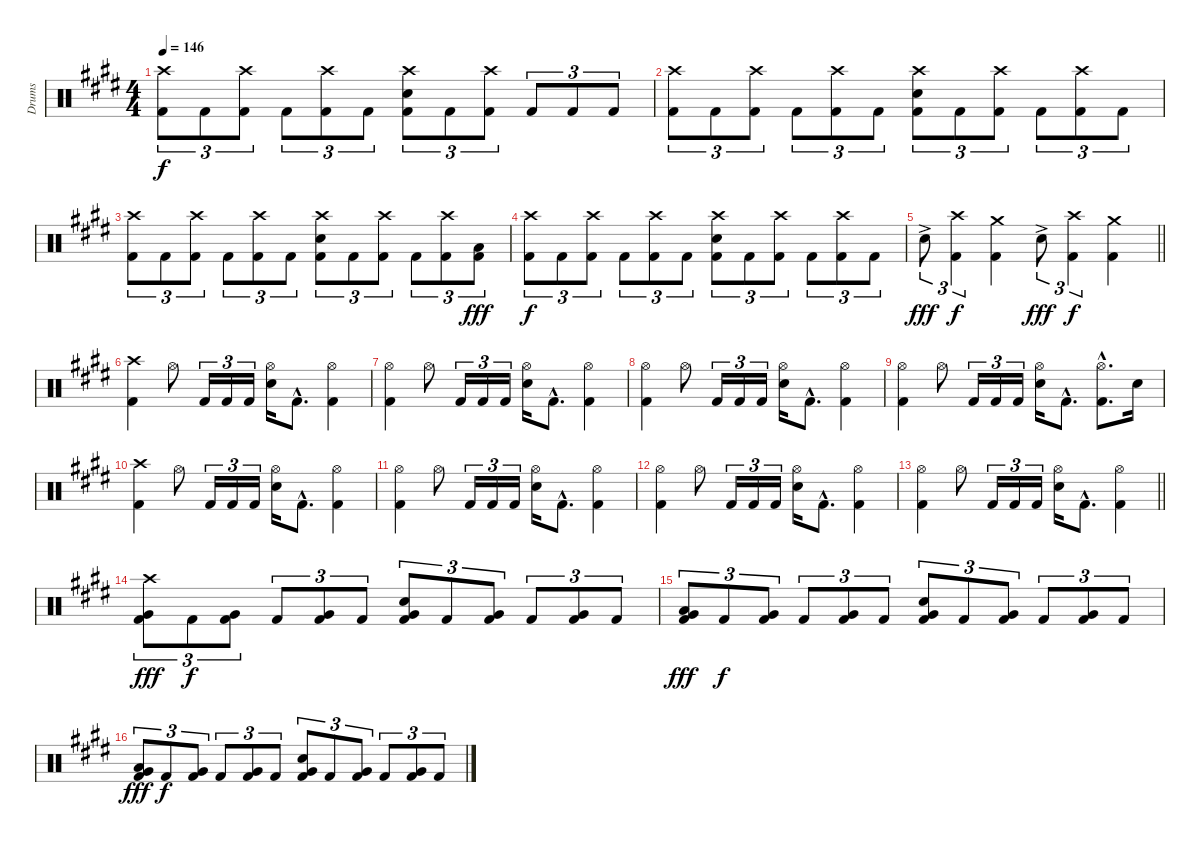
\track ("Drums" "Drums") {instrument percussion}
\staff {score}
\articulation defaults
\ts (4 4)
\tempo 146
\clef neutral
\ks c#minor
("Crash high (hit)" "Kick (hit) 2").8{tu (3 2) dy f} "Kick (hit) 2".8{tu (3 2)} ("Crash high (hit)" "Kick (hit) 2").8{tu (3 2)} "Kick (hit) 2".8{tu (3 2)} ("Crash high (hit)" "Kick (hit) 2").8{tu (3 2)} "Kick (hit) 2".8{tu (3 2)} ("Crash high (hit)" "Snare (hit) 2" "Kick (hit) 2").8{tu (3 2)} "Kick (hit) 2".8{tu (3 2)} ("Crash high (hit)" "Kick (hit) 2").8{tu (3 2)} "Kick (hit) 2".8{tu (3 2)} "Kick (hit) 2".8{tu (3 2)} "Kick (hit) 2".8{tu (3 2)} |
("Crash high (hit)" "Kick (hit) 2").8{tu (3 2)} "Kick (hit) 2".8{tu (3 2)} ("Crash high (hit)" "Kick (hit) 2").8{tu (3 2)} "Kick (hit) 2".8{tu (3 2)} ("Crash high (hit)" "Kick (hit) 2").8{tu (3 2)} "Kick (hit) 2".8{tu (3 2)} ("Crash high (hit)" "Snare (hit) 2" "Kick (hit) 2").8{tu (3 2)} "Kick (hit) 2".8{tu (3 2)} ("Crash high (hit)" "Kick (hit) 2").8{tu (3 2)} "Kick (hit) 2".8{tu (3 2)} ("Crash high (hit)" "Kick (hit) 2").8{tu (3 2)} "Kick (hit) 2".8{tu (3 2)} |
("Crash high (hit)" "Kick (hit) 2").8{tu (3 2)} "Kick (hit) 2".8{tu (3 2)} ("Crash high (hit)" "Kick (hit) 2").8{tu (3 2)} "Kick (hit) 2".8{tu (3 2)} ("Crash high (hit)" "Kick (hit) 2").8{tu (3 2)} "Kick (hit) 2".8{tu (3 2)} ("Crash high (hit)" "Snare (hit) 2" "Kick (hit) 2").8{tu (3 2)} "Kick (hit) 2".8{tu (3 2)} ("Crash high (hit)" "Kick (hit) 2").8{tu (3 2)} "Kick (hit) 2".8{tu (3 2)} ("Crash high (hit)" "Kick (hit) 2").8{tu (3 2)} ("Low Tom (hit)" "Kick (hit) 2").8{tu (3 2) dy fff} |
("Crash high (hit)" "Kick (hit) 2").8{tu (3 2) dy f} "Kick (hit) 2".8{tu (3 2)} ("Crash high (hit)" "Kick (hit) 2").8{tu (3 2)} "Kick (hit) 2".8{tu (3 2)} ("Crash high (hit)" "Kick (hit) 2").8{tu (3 2)} "Kick (hit) 2".8{tu (3 2)} ("Crash high (hit)" "Snare (hit) 2" "Kick (hit) 2").8{tu (3 2)} "Kick (hit) 2".8{tu (3 2)} ("Crash high (hit)" "Kick (hit) 2").8{tu (3 2)} "Kick (hit) 2".8{tu (3 2)} ("Crash high (hit)" "Kick (hit) 2").8{tu (3 2)} "Kick (hit) 2".8{tu (3 2)} |
\barLineRight lightlight "Snare (hit) 2"{ac}.8{tu (3 2) dy fff}
("Crash high (hit)" "Kick (hit) 2").4{tu (3 2) dy f} ("Crash medium (hit)" "Kick (hit) 2").4 "Snare (hit) 2"{ac}.8{tu (3 2) dy fff} ("Crash high (hit)" "Kick (hit) 2").4{tu (3 2) dy f} ("Crash medium (hit)" "Kick (hit) 2").4 |
("Crash high (hit)" "Kick (hit) 2").4 "Hi-Hat (open)".8 "Kick (hit) 2".16{tu (3 2)} "Kick (hit) 2".16{tu (3 2)} "Kick (hit) 2".16{tu (3 2)} ("Hi-Hat (open)" "Snare (hit) 2").16 "Kick (hit) 2"{hac}.8{d} ("Hi-Hat (open)" "Kick (hit) 2").4 |
("Hi-Hat (open)" "Kick (hit) 2").4 "Hi-Hat (open)".8 "Kick (hit) 2".16{tu (3 2)} "Kick (hit) 2".16{tu (3 2)} "Kick (hit) 2".16{tu (3 2)} ("Hi-Hat (open)" "Snare (hit) 2").16 "Kick (hit) 2"{hac}.8{d} ("Hi-Hat (open)" "Kick (hit) 2").4 |
("Hi-Hat (open)" "Kick (hit) 2").4 "Hi-Hat (open)".8 "Kick (hit) 2".16{tu (3 2)} "Kick (hit) 2".16{tu (3 2)} "Kick (hit) 2".16{tu (3 2)} ("Hi-Hat (open)" "Snare (hit) 2").16 "Kick (hit) 2"{hac}.8{d} ("Hi-Hat (open)" "Kick (hit) 2").4 |
("Hi-Hat (open)" "Kick (hit) 2").4 "Hi-Hat (open)".8 "Kick (hit) 2".16{tu (3 2)} "Kick (hit) 2".16{tu (3 2)} "Kick (hit) 2".16{tu (3 2)} ("Hi-Hat (open)" "Snare (hit) 2").16 "Kick (hit) 2"{hac}.8{d} ("Hi-Hat (open)"{hac} "Kick (hit) 2"{hac}).8{d} "Snare (hit) 2".16 |
("Crash high (hit)" "Kick (hit) 2").4 "Hi-Hat (open)".8 "Kick (hit) 2".16{tu (3 2)} "Kick (hit) 2".16{tu (3 2)} "Kick (hit) 2".16{tu (3 2)} ("Hi-Hat (open)" "Snare (hit) 2").16 "Kick (hit) 2"{hac}.8{d} ("Hi-Hat (open)" "Kick (hit) 2").4 |
("Hi-Hat (open)" "Kick (hit) 2").4 "Hi-Hat (open)".8 "Kick (hit) 2".16{tu (3 2)} "Kick (hit) 2".16{tu (3 2)} "Kick (hit) 2".16{tu (3 2)} ("Hi-Hat (open)" "Snare (hit) 2").16 "Kick (hit) 2"{hac}.8{d} ("Hi-Hat (open)" "Kick (hit) 2").4 |
("Hi-Hat (open)" "Kick (hit) 2").4 "Hi-Hat (open)".8 "Kick (hit) 2".16{tu (3 2)} "Kick (hit) 2".16{tu (3 2)} "Kick (hit) 2".16{tu (3 2)} ("Hi-Hat (open)" "Snare (hit) 2").16 "Kick (hit) 2"{hac}.8{d} ("Hi-Hat (open)" "Kick (hit) 2").4 |
\barLineRight lightlight
("Hi-Hat (open)" "Kick (hit) 2").4 "Hi-Hat (open)".8 "Kick (hit) 2".16{tu (3 2)} "Kick (hit) 2".16{tu (3 2)} "Kick (hit) 2".16{tu (3 2)} ("Hi-Hat (open)" "Snare (hit) 2").16 "Kick (hit) 2"{hac}.8{d} ("Hi-Hat (open)" "Kick (hit) 2").4 |
("Crash high (hit)" "Very Low Tom (hit)" "Kick (hit) 2").8{tu (3 2) dy fff} "Kick (hit) 2".8{tu (3 2) dy f} ("Very Low Tom (hit)" "Kick (hit) 2").8{tu (3 2)} "Kick (hit) 2".8{tu (3 2)} ("Very Low Tom (hit)" "Kick (hit) 2").8{tu (3 2)} "Kick (hit) 2".8{tu (3 2)} ("Snare (hit) 2" "Very Low Tom (hit)" "Kick (hit) 2").8{tu (3 2)} "Kick (hit) 2".8{tu (3 2)} ("Very Low Tom (hit)" "Kick (hit) 2").8{tu (3 2)} "Kick (hit) 2".8{tu (3 2)} ("Very Low Tom (hit)" "Kick (hit) 2").8{tu (3 2)} "Kick (hit) 2".8{tu (3 2)} |
("Low Tom (hit)" "Very Low Tom (hit)" "Kick (hit) 2").8{tu (3 2) dy fff} "Kick (hit) 2".8{tu (3 2) dy f} ("Very Low Tom (hit)" "Kick (hit) 2").8{tu (3 2)} "Kick (hit) 2".8{tu (3 2)} ("Very Low Tom (hit)" "Kick (hit) 2").8{tu (3 2)} "Kick (hit) 2".8{tu (3 2)} ("Snare (hit) 2" "Very Low Tom (hit)" "Kick (hit) 2").8{tu (3 2)} "Kick (hit) 2".8{tu (3 2)} ("Very Low Tom (hit)" "Kick (hit) 2").8{tu (3 2)} "Kick (hit) 2".8{tu (3 2)} ("Very Low Tom (hit)" "Kick (hit) 2").8{tu (3 2)} "Kick (hit) 2".8{tu (3 2)} |
("Low Tom (hit)" "Very Low Tom (hit)" "Kick (hit) 2").8{tu (3 2) dy fff} "Kick (hit) 2".8{tu (3 2) dy f} ("Very Low Tom (hit)" "Kick (hit) 2").8{tu (3 2)} "Kick (hit) 2".8{tu (3 2)} ("Very Low Tom (hit)" "Kick (hit) 2").8{tu (3 2)} "Kick (hit) 2".8{tu (3 2)} ("Snare (hit) 2" "Very Low Tom (hit)" "Kick (hit) 2").8{tu (3 2)} "Kick (hit) 2".8{tu (3 2)} ("Very Low Tom (hit)" "Kick (hit) 2").8{tu (3 2)} "Kick (hit) 2".8{tu (3 2)} ("Very Low Tom (hit)" "Kick (hit) 2").8{tu (3 2)} "Kick (hit) 2".8{tu (3 2)}
